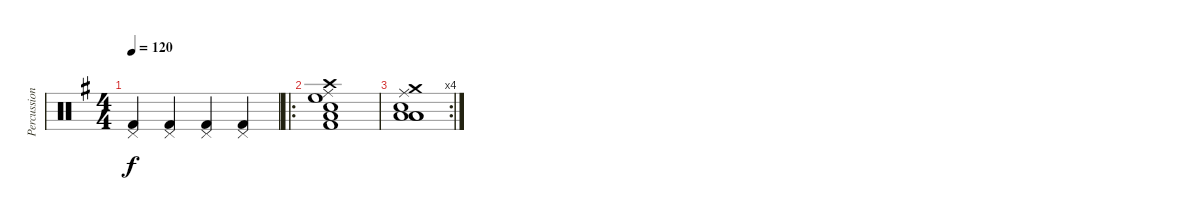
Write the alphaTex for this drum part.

\track ("Percussion" "Percussion") {instrument percussion}
\staff {score}
\articulation defaults
\ts (4 4)
\tempo 120
\clef neutral
\ks eminor
("Pedal Hi-Hat (hit)" "Kick (hit) 2").4{dy f} ("Pedal Hi-Hat (hit)" "Kick (hit) 2").4 ("Pedal Hi-Hat (hit)" "Kick (hit) 2").4 ("Pedal Hi-Hat (hit)" "Kick (hit) 2").4 |
\ro
("Low Tom (hit)" "Ride (middle)" "Crash high (hit)" "Snare (hit) 2" "High Floor Tom (hit)" "Kick (hit) 2").1 |
\rc 4
("Low Tom (hit)" "Ride (middle)" "Crash medium (hit)" "Snare (hit) 2" "Low Floor Tom (hit)" "Low Floor Tom (hit)").1
